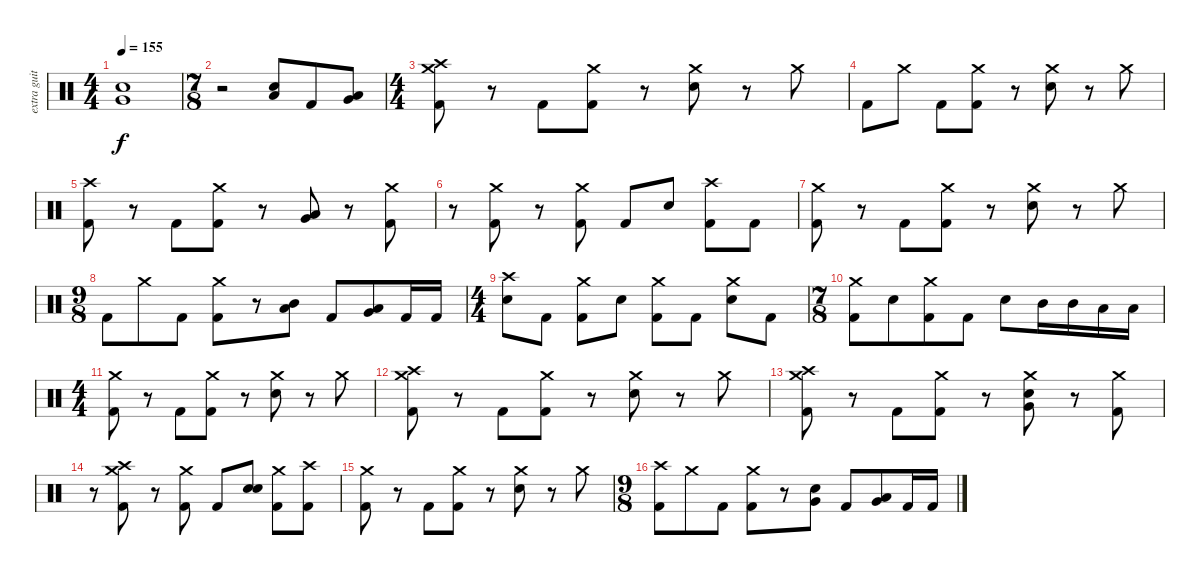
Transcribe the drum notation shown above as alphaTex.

\track ("extra guitar" "extra guit") {instrument percussion}
\staff {score}
\articulation defaults
\ts (4 4)
\tempo 155
\clef neutral
\ks c
("Electric Snare (hit)" "Very Low Tom (hit)").1{dy f} |
\ts (7 8)
r.2 ("Electric Snare (hit)" "Low Tom (hit)").8 "Kick (hit) 2".8 ("Low Tom (hit)" "Very Low Tom (hit)").8 |
\ts (4 4)
("Crash medium (hit)" "Crash high (hit)" "Kick (hit) 2").8 r.8 "Kick (hit) 2".8 ("Crash medium (hit)" "Kick (hit) 2").8 r.8 ("Crash medium (hit)" "Electric Snare (hit)").8 r.8 "Crash medium (hit)".8 |
"Kick (hit) 2".8 "Crash medium (hit)".8 "Kick (hit) 2".8 ("Crash medium (hit)" "Kick (hit) 2").8 r.8 ("Crash medium (hit)" "Electric Snare (hit)").8 r.8 "Crash medium (hit)".8 |
("Crash high (hit)" "Kick (hit) 2").8 r.8 "Kick (hit) 2".8 ("Crash medium (hit)" "Kick (hit) 2").8 r.8 ("Low Tom (hit)" "Very Low Tom (hit)").8 r.8 ("Crash medium (hit)" "Kick (hit) 2").8 |
r.8 ("Crash medium (hit)" "Kick (hit) 2").8 r.8 ("Crash medium (hit)" "Kick (hit) 2").8 "Kick (hit) 2".8 "Electric Snare (hit)".8 ("Crash high (hit)" "Kick (hit) 2").8 "Kick (hit) 2".8 |
("Crash medium (hit)" "Kick (hit) 2").8 r.8 "Kick (hit) 2".8 ("Crash medium (hit)" "Kick (hit) 2").8 r.8 ("Crash medium (hit)" "Electric Snare (hit)").8 r.8 "Crash medium (hit)".8 |
\ts (9 8)
"Kick (hit) 2".8 "Crash medium (hit)".8 "Kick (hit) 2".8 ("Crash medium (hit)" "Kick (hit) 2").8 r.8 ("Mid Tom (hit)" "Low Tom (hit)").8 "Kick (hit) 2".8 ("Low Tom (hit)" "Very Low Tom (hit)").8 "Kick (hit) 2".16 "Kick (hit) 2".16 |
\ts (4 4)
("Crash high (hit)" "Electric Snare (hit)").8 "Kick (hit) 2".8 ("Crash medium (hit)" "Kick (hit) 2").8 "Electric Snare (hit)".8 ("Crash medium (hit)" "Kick (hit) 2").8 "Kick (hit) 2".8 ("Crash medium (hit)" "Electric Snare (hit)").8 "Kick (hit) 2".8 |
\ts (7 8)
("Crash medium (hit)" "Kick (hit) 2").8 "Electric Snare (hit)".8 ("Crash medium (hit)" "Kick (hit) 2").8 "Kick (hit) 2".8 "Electric Snare (hit)".8 "Mid Tom (hit)".16 "Mid Tom (hit)".16 "Low Tom (hit)".16 "Low Tom (hit)".16 |
\ts (4 4)
("Crash medium (hit)" "Kick (hit) 2").8 r.8 "Kick (hit) 2".8 ("Crash medium (hit)" "Kick (hit) 2").8 r.8 ("Crash medium (hit)" "Electric Snare (hit)").8 r.8 "Crash medium (hit)".8 |
("Crash medium (hit)" "Crash high (hit)" "Kick (hit) 2").8 r.8 "Kick (hit) 2".8 ("Crash medium (hit)" "Kick (hit) 2").8 r.8 ("Crash medium (hit)" "Electric Snare (hit)").8 r.8 "Crash medium (hit)".8 |
("Crash medium (hit)" "Crash high (hit)" "Kick (hit) 2").8 r.8 "Kick (hit) 2".8 ("Crash medium (hit)" "Kick (hit) 2").8 r.8 ("Crash medium (hit)" "Very Low Tom (hit)" "Electric Snare (hit)").8 r.8 ("Crash medium (hit)" "Kick (hit) 2").8 |
r.8 ("Crash medium (hit)" "Crash high (hit)" "Kick (hit) 2").8 r.8 ("Crash medium (hit)" "Kick (hit) 2").8 "Kick (hit) 2".8 ("Electric Snare (hit)" "Electric Snare (hit)").8 ("Crash medium (hit)" "Kick (hit) 2").8 ("Crash high (hit)" "Kick (hit) 2").8 |
("Crash medium (hit)" "Kick (hit) 2").8 r.8 "Kick (hit) 2".8 ("Crash medium (hit)" "Kick (hit) 2").8 r.8 ("Crash medium (hit)" "Electric Snare (hit)").8 r.8 "Crash medium (hit)".8 |
\ts (9 8)
("Crash high (hit)" "Kick (hit) 2").8 "Crash medium (hit)".8 "Kick (hit) 2".8 ("Crash medium (hit)" "Kick (hit) 2").8 r.8 ("Electric Snare (hit)" "Very Low Tom (hit)").8 "Kick (hit) 2".8 ("Low Tom (hit)" "Very Low Tom (hit)").8 "Kick (hit) 2".16 "Kick (hit) 2".16
